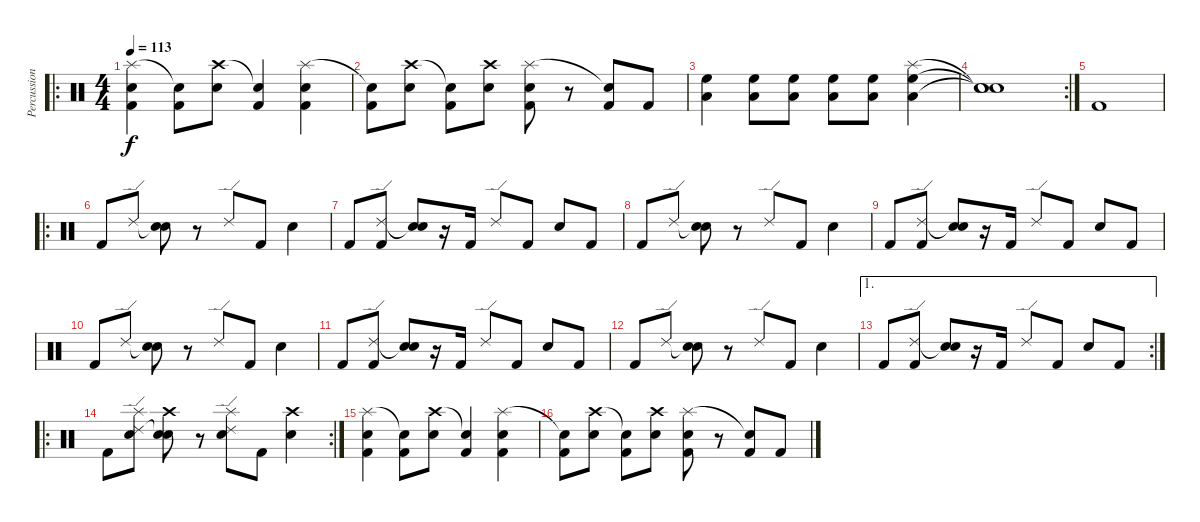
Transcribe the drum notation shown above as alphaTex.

\track ("Percussion" "Percussion") {instrument percussion}
\staff {score}
\articulation defaults
\ro
\ts (4 4)
\tempo 113
\clef neutral
\ks c
("Splash (hit)" "Snare (hit) 2" "Kick (hit) 2").4{dy f} ("Snare (hit)"{t} "Kick (hit) 2").8 ("Crash high (hit)" "Snare (hit) 2").8 ("Snare (hit)"{t} "Kick (hit) 2").4 ("Splash (hit)" "Snare (hit) 2" "Kick (hit) 2").4 |
("Snare (hit)"{t} "Kick (hit) 2").8 ("Crash high (hit)" "Snare (hit) 2").8 ("Snare (hit)"{t} "Kick (hit) 2").8 ("Crash high (hit)" "Snare (hit) 2").8 ("Splash (hit)" "Snare (hit) 2" "Kick (hit) 2").8 r.8 ("Snare (hit)"{t} "Kick (hit) 2").8 "Kick (hit) 2".8 |
("High Floor Tom (hit)" "Low Tom (hit)").4 ("High Floor Tom (hit)" "Low Tom (hit)").8 ("High Floor Tom (hit)" "Low Tom (hit)").8 ("High Floor Tom (hit)" "Low Tom (hit)").8 ("High Floor Tom (hit)" "Low Tom (hit)").8 ("Splash (hit)" "High Floor Tom (hit)" "Low Tom (hit)").4 |
\rc 2
("Snare (hit)"{t} "Snare (hit)"{t} "Snare (hit)"{t}).1 |
"Kick (hit) 2".1 |
\ro "Kick (hit) 2".8 "Ride (edge) 2".8
("Snare (hit)"{t} "Snare (hit) 2").8 r.8 "Ride (edge) 2".8 "Kick (hit) 2".8 "Snare (hit) 2".4 |
"Kick (hit) 2".8 ("Ride (edge) 2" "Kick (hit) 2").8 ("Snare (hit)"{t} "Snare (hit) 2").8 r.16 "Kick (hit) 2".16 "Ride (edge) 2".8 "Kick (hit) 2".8 "Snare (hit) 2".8 "Kick (hit) 2".8 |
"Kick (hit) 2".8 "Ride (edge) 2".8 ("Snare (hit)"{t} "Snare (hit) 2").8 r.8 "Ride (edge) 2".8 "Kick (hit) 2".8 "Snare (hit) 2".4 |
"Kick (hit) 2".8 ("Ride (edge) 2" "Kick (hit) 2").8 ("Snare (hit)"{t} "Snare (hit) 2").8 r.16 "Kick (hit) 2".16 "Ride (edge) 2".8 "Kick (hit) 2".8 "Snare (hit) 2".8 "Kick (hit) 2".8 |
"Kick (hit) 2".8 "Ride (edge) 2".8 ("Snare (hit)"{t} "Snare (hit) 2").8 r.8 "Ride (edge) 2".8 "Kick (hit) 2".8 "Snare (hit) 2".4 |
"Kick (hit) 2".8 ("Ride (edge) 2" "Kick (hit) 2").8 ("Snare (hit)"{t} "Snare (hit) 2").8 r.16 "Kick (hit) 2".16 "Ride (edge) 2".8 "Kick (hit) 2".8 "Snare (hit) 2".8 "Kick (hit) 2".8 |
"Kick (hit) 2".8 "Ride (edge) 2".8 ("Snare (hit)"{t} "Snare (hit) 2").8 r.8 "Ride (edge) 2".8 "Kick (hit) 2".8 "Snare (hit) 2".4 |
\ae 1
\rc 2 "Kick (hit) 2".8
("Ride (edge) 2" "Kick (hit) 2").8 ("Snare (hit)"{t} "Snare (hit) 2").8 r.16 "Kick (hit) 2".16 "Ride (edge) 2".8 "Kick (hit) 2".8 "Snare (hit) 2".8 "Kick (hit) 2".8 |
\ro
\rc 2 "Kick (hit) 2".8
("Ride (edge) 2" "Splash (hit)" "Snare (hit) 2").8 ("Snare (hit)"{t} "Crash high (hit)" "Snare (hit) 2").8 r.8 ("Ride (edge) 2" "Splash (hit)" "Snare (hit) 2").8 "Kick (hit) 2".8 ("Crash high (hit)" "Snare (hit) 2").4 |
("Splash (hit)" "Snare (hit) 2" "Kick (hit) 2").4 ("Snare (hit)"{t} "Kick (hit) 2").8 ("Crash high (hit)" "Snare (hit) 2").8 ("Snare (hit)"{t} "Kick (hit) 2").4 ("Splash (hit)" "Snare (hit) 2" "Kick (hit) 2").4 |
("Snare (hit)"{t} "Kick (hit) 2").8 ("Crash high (hit)" "Snare (hit) 2").8 ("Snare (hit)"{t} "Kick (hit) 2").8 ("Crash high (hit)" "Snare (hit) 2").8 ("Splash (hit)" "Snare (hit) 2" "Kick (hit) 2").8 r.8 ("Snare (hit)"{t} "Kick (hit) 2").8 "Kick (hit) 2".8
